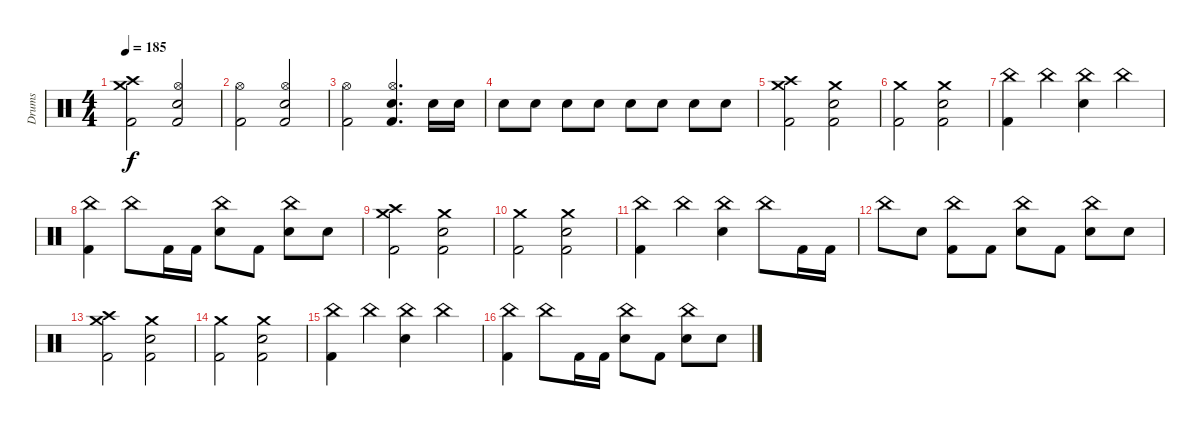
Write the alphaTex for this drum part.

\track ("Drums" "Drums") {instrument percussion}
\staff {score}
\articulation defaults
\ts (4 4)
\tempo 185
\clef neutral
\ks c
("Crash high (hit)" "Crash medium (hit)" "Kick (hit) 2").2{dy f} ("Hi-Hat (open)" "Electric Snare (hit)" "Kick (hit) 2").2 |
("Hi-Hat (open)" "Kick (hit) 2").2 ("Hi-Hat (open)" "Electric Snare (hit)" "Kick (hit) 2").2 |
("Hi-Hat (open)" "Kick (hit) 2").2 ("Hi-Hat (open)" "Electric Snare (hit)" "Kick (hit) 2").4{d} "Electric Snare (hit)".16 "Electric Snare (hit)".16 |
"Electric Snare (hit)".8 "Electric Snare (hit)".8 "Electric Snare (hit)".8 "Electric Snare (hit)".8 "Electric Snare (hit)".8 "Electric Snare (hit)".8 "Electric Snare (hit)".8 "Electric Snare (hit)".8 |
("Crash high (hit)" "Crash medium (hit)" "Kick (hit) 2").2 ("Crash medium (hit)" "Electric Snare (hit)" "Kick (hit) 2").2 |
("Crash medium (hit)" "Kick (hit) 2").2 ("Crash medium (hit)" "Electric Snare (hit)" "Kick (hit) 2").2 |
("China (hit)" "Kick (hit) 2").4 "China (hit)".4 ("China (hit)" "Electric Snare (hit)").4 "China (hit)".4 |
("China (hit)" "Kick (hit) 2").4 "China (hit)".8 "Kick (hit) 2".16 "Kick (hit) 2".16 ("China (hit)" "Electric Snare (hit)").8 "Kick (hit) 2".8 ("China (hit)" "Electric Snare (hit)").8 "Electric Snare (hit)".8 |
("Crash high (hit)" "Crash medium (hit)" "Kick (hit) 2").2 ("Crash medium (hit)" "Electric Snare (hit)" "Kick (hit) 2").2 |
("Crash medium (hit)" "Kick (hit) 2").2 ("Crash medium (hit)" "Electric Snare (hit)" "Kick (hit) 2").2 |
("China (hit)" "Kick (hit) 2").4 "China (hit)".4 ("China (hit)" "Electric Snare (hit)").4 "China (hit)".8 "Kick (hit) 2".16 "Kick (hit) 2".16 |
"China (hit)".8 "Electric Snare (hit)".8 ("China (hit)" "Kick (hit) 2").8 "Kick (hit) 2".8 ("China (hit)" "Electric Snare (hit)").8 "Kick (hit) 2".8 ("China (hit)" "Electric Snare (hit)").8 "Electric Snare (hit)".8 |
("Crash high (hit)" "Crash medium (hit)" "Kick (hit) 2").2 ("Crash medium (hit)" "Electric Snare (hit)" "Kick (hit) 2").2 |
("Crash medium (hit)" "Kick (hit) 2").2 ("Crash medium (hit)" "Electric Snare (hit)" "Kick (hit) 2").2 |
("China (hit)" "Kick (hit) 2").4 "China (hit)".4 ("China (hit)" "Electric Snare (hit)").4 "China (hit)".4 |
("China (hit)" "Kick (hit) 2").4 "China (hit)".8 "Kick (hit) 2".16 "Kick (hit) 2".16 ("China (hit)" "Electric Snare (hit)").8 "Kick (hit) 2".8 ("China (hit)" "Electric Snare (hit)").8 "Electric Snare (hit)".8
